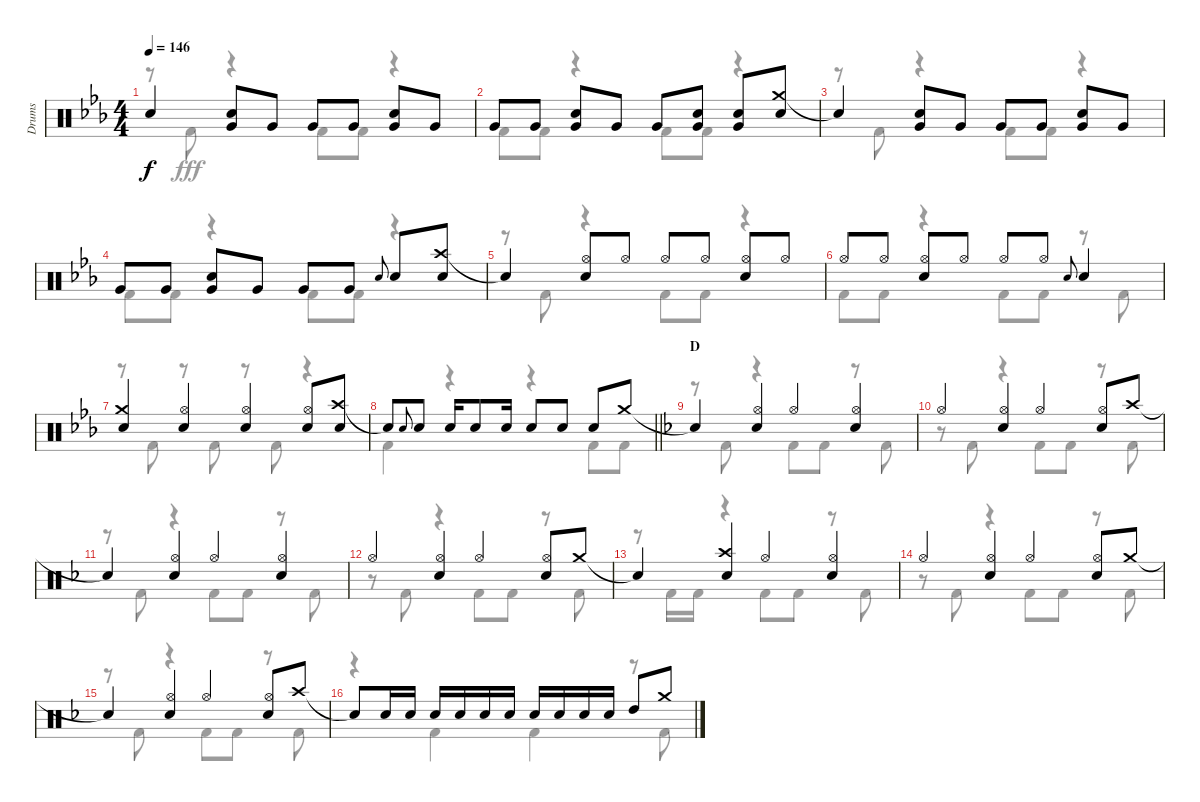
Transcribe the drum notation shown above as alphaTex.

\track ("Drums" "Drums") {instrument percussion}
\staff {score}
\articulation defaults
\voice
\ts (4 4)
\tempo 146
\clef neutral
\ks eb "Snare (hit)"{t}.4{dy f}
("Snare (hit) 2" "Very Low Tom (hit)").8 "Very Low Tom (hit)".8 "Very Low Tom (hit)".8 "Very Low Tom (hit)".8 ("Snare (hit) 2" "Very Low Tom (hit)").8 "Very Low Tom (hit)".8 |
"Very Low Tom (hit)".8 "Very Low Tom (hit)".8 ("Snare (hit) 2" "Very Low Tom (hit)").8 "Very Low Tom (hit)".8 "Very Low Tom (hit)".8 ("Snare (hit) 2" "Very Low Tom (hit)").8 ("Snare (hit) 2" "Very Low Tom (hit)").8 ("Crash medium (hit)" "Snare (hit) 2").8 |
"Snare (hit)"{t}.4 ("Snare (hit) 2" "Very Low Tom (hit)").8 "Very Low Tom (hit)".8 "Very Low Tom (hit)".8 "Very Low Tom (hit)".8 ("Snare (hit) 2" "Very Low Tom (hit)").8 "Very Low Tom (hit)".8 |
"Very Low Tom (hit)".8 "Very Low Tom (hit)".8 ("Snare (hit) 2" "Very Low Tom (hit)").8 "Very Low Tom (hit)".8 "Very Low Tom (hit)".8 "Very Low Tom (hit)".8 "Snare (hit) 2".8{gr onbeat} "Snare (hit) 2".8 ("Crash high (hit)" "Snare (hit) 2").8 |
"Snare (hit)"{t}.4 ("Hi-Hat (open)" "Snare (hit) 2").8 "Hi-Hat (open)".8 "Hi-Hat (open)".8 "Hi-Hat (open)".8 ("Hi-Hat (open)" "Snare (hit) 2").8 "Hi-Hat (open)".8 |
"Hi-Hat (open)".8 "Hi-Hat (open)".8 ("Hi-Hat (open)" "Snare (hit) 2").8 "Hi-Hat (open)".8 "Hi-Hat (open)".8 "Hi-Hat (open)".8 "Snare (hit) 2".8{gr onbeat} "Snare (hit) 2".4 |
("Crash medium (hit)" "Snare (hit) 2").4 ("Hi-Hat (open)" "Snare (hit) 2").4 ("Hi-Hat (open)" "Snare (hit) 2").4 ("Hi-Hat (open)" "Snare (hit) 2").8 ("Crash high (hit)" "Snare (hit) 2").8 |
\barLineRight lightlight "Snare (hit)"{t}.8 "Snare (hit) 2".8{gr onbeat} "Snare (hit) 2".8 "Snare (hit) 2".16 "Snare (hit) 2".8 "Snare (hit) 2".16 "Snare (hit) 2".8 "Snare (hit) 2".8 "Snare (hit) 2".8 "Crash medium (hit)".8
|
\section ("" "D")
\ks f "Snare (hit)"{t}.4
("Hi-Hat (open)" "Snare (hit) 2").4 "Hi-Hat (open)".4 ("Hi-Hat (open)" "Snare (hit) 2").4 |
"Hi-Hat (open)".4 ("Hi-Hat (open)" "Snare (hit) 2").4 "Hi-Hat (open)".4 ("Hi-Hat (open)" "Snare (hit) 2").8 "Crash high (hit)".8 |
"Snare (hit)"{t}.4 ("Hi-Hat (open)" "Snare (hit) 2").4 "Hi-Hat (open)".4 ("Hi-Hat (open)" "Snare (hit) 2").4 |
"Hi-Hat (open)".4 ("Hi-Hat (open)" "Snare (hit) 2").4 "Hi-Hat (open)".4 ("Hi-Hat (open)" "Snare (hit) 2").8 "Crash medium (hit)".8 |
"Snare (hit)"{t}.4 ("Crash high (hit)" "Snare (hit) 2").4 "Hi-Hat (open)".4 ("Hi-Hat (open)" "Snare (hit) 2").4 |
"Hi-Hat (open)".4 ("Hi-Hat (open)" "Snare (hit) 2").4 "Hi-Hat (open)".4 ("Hi-Hat (open)" "Snare (hit) 2").8 "Crash medium (hit)".8 |
"Snare (hit)"{t}.4 ("Hi-Hat (open)" "Snare (hit) 2").4 "Hi-Hat (open)".4 ("Hi-Hat (open)" "Snare (hit) 2").8 "Crash high (hit)".8 |
"Snare (hit)"{t}.8 "Snare (hit) 2".16 "Snare (hit) 2".16 "Snare (hit) 2".16 "Snare (hit) 2".16 "Snare (hit) 2".16 "Snare (hit) 2".16 "Snare (hit) 2".16 "Snare (hit) 2".16 "Snare (hit) 2".16 "Snare (hit) 2".16 "High Tom (hit)".8 "Crash medium (hit)".8
\voice
\clef neutral
\ottava regular
\simile none
\ks eb
r.8{dy fff} "Kick (hit) 2".8 r.4 "Kick (hit) 2".8 "Kick (hit) 2".8 r.4 |
"Kick (hit) 2".8 "Kick (hit) 2".8 r.4 "Kick (hit) 2".8 "Kick (hit) 2".8 r.4 |
r.8 "Kick (hit) 2".8 r.4 "Kick (hit) 2".8 "Kick (hit) 2".8 r.4 |
"Kick (hit) 2".8 "Kick (hit) 2".8 r.4 "Kick (hit) 2".8 "Kick (hit) 2".8 r.4 |
r.8 "Kick (hit) 2".8 r.4 "Kick (hit) 2".8 "Kick (hit) 2".8 r.4 |
"Kick (hit) 2".8 "Kick (hit) 2".8 r.4 "Kick (hit) 2".8 "Kick (hit) 2".8 r.8 "Kick (hit) 2".8 |
r.8 "Kick (hit) 2".8 r.8 "Kick (hit) 2".8 r.8 "Kick (hit) 2".8 r.4 |
\barLineRight lightlight "Kick (hit) 2".4
r.4 r.4 "Kick (hit) 2".8 "Kick (hit) 2".8 |
\ks f
r.8 "Kick (hit) 2".8 r.4 "Kick (hit) 2".8 "Kick (hit) 2".8 r.8 "Kick (hit) 2".8 |
r.8 "Kick (hit) 2".8 r.4 "Kick (hit) 2".8 "Kick (hit) 2".8 r.8 "Kick (hit) 2".8 |
r.8 "Kick (hit) 2".8 r.4 "Kick (hit) 2".8 "Kick (hit) 2".8 r.8 "Kick (hit) 2".8 |
r.8 "Kick (hit) 2".8 r.4 "Kick (hit) 2".8 "Kick (hit) 2".8 r.8 "Kick (hit) 2".8 |
r.8 "Kick (hit) 2".16 "Kick (hit) 2".16 r.4 "Kick (hit) 2".8 "Kick (hit) 2".8 r.8 "Kick (hit) 2".8 |
r.8 "Kick (hit) 2".8 r.4 "Kick (hit) 2".8 "Kick (hit) 2".8 r.8 "Kick (hit) 2".8 |
r.8 "Kick (hit) 2".8 r.4 "Kick (hit) 2".8 "Kick (hit) 2".8 r.8 "Kick (hit) 2".8 |
r.4 "Kick (hit) 2".4 "Kick (hit) 2".4 r.8 "Kick (hit) 2".8
